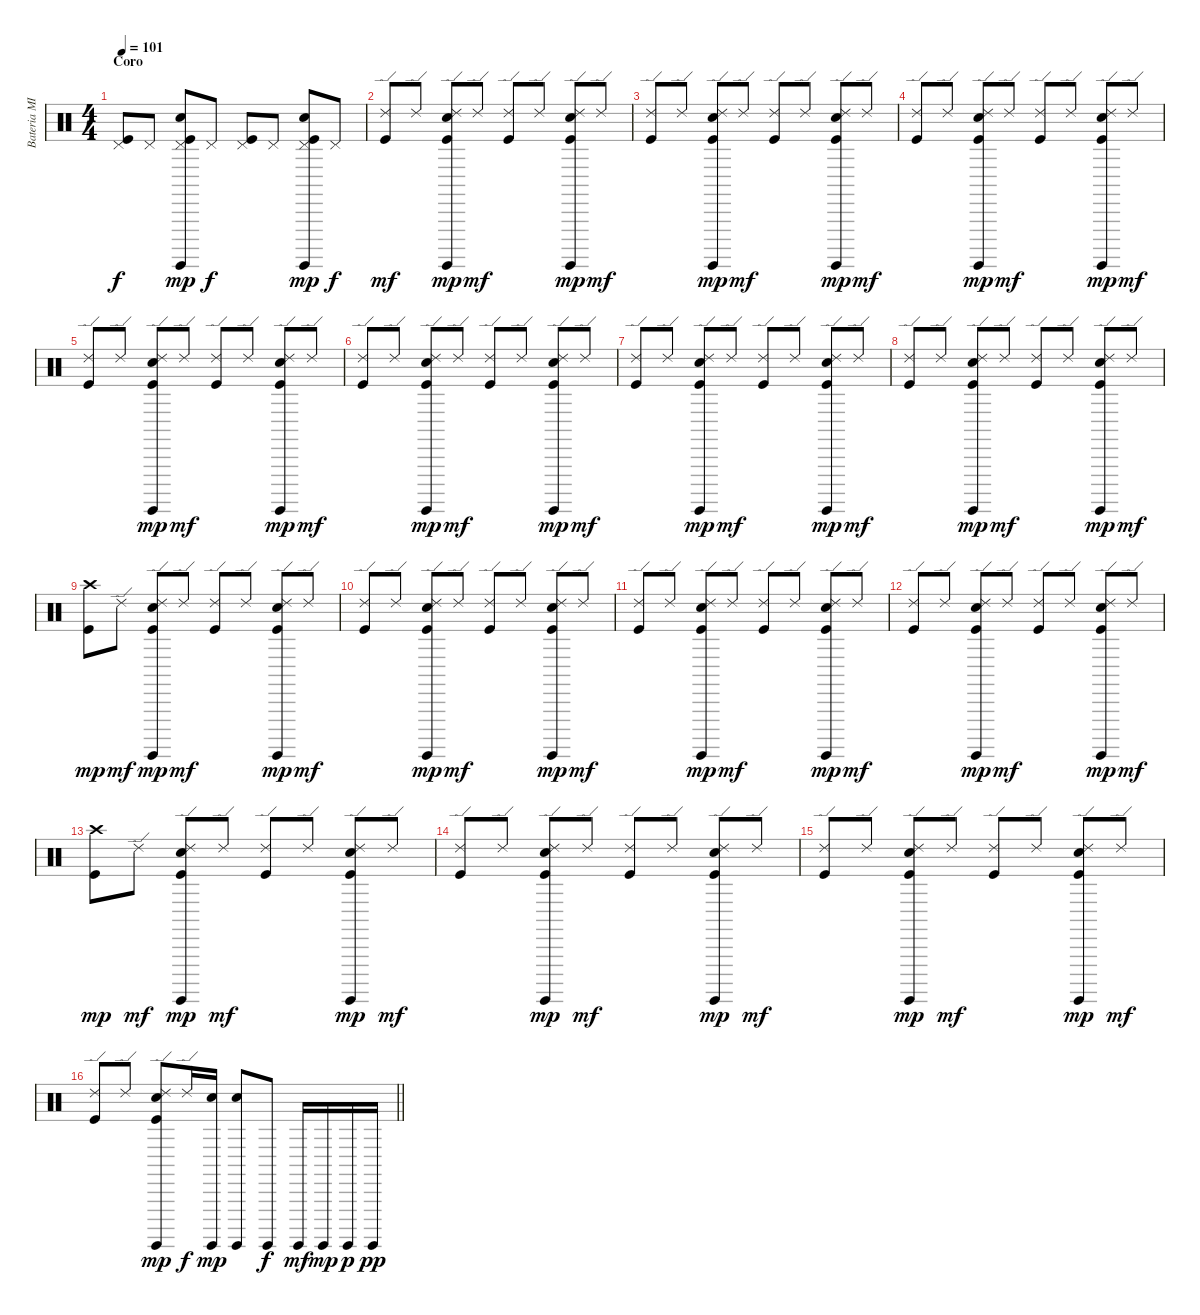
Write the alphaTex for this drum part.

\track ("Bateria MIDI" "Bateria MI") {instrument percussion}
\staff {score}
\articulation defaults
\ts (4 4)
\section ("" "Coro")
\tempo 101
\clef neutral
\ks c
("Pedal Hi-Hat (hit)" "Kick (hit)").8{dy f} "Pedal Hi-Hat (hit)".8 ("Pedal Hi-Hat (hit)" "Surdo (hit)" "Electric Snare (hit)" "Kick (hit)").8{dy mp} "Pedal Hi-Hat (hit)".8{dy f} ("Pedal Hi-Hat (hit)" "Kick (hit)").8 "Pedal Hi-Hat (hit)".8 ("Pedal Hi-Hat (hit)" "Surdo (hit)" "Electric Snare (hit)" "Kick (hit)").8{dy mp} "Pedal Hi-Hat (hit)".8{dy f} |
("Ride (edge) 2" "Kick (hit)").8{dy mf} "Ride (edge) 2".8 ("Ride (edge) 2" "Surdo (hit)" "Electric Snare (hit)" "Kick (hit)").8{dy mp} "Ride (edge) 2".8{dy mf} ("Ride (edge) 2" "Kick (hit)").8 "Ride (edge) 2".8 ("Ride (edge) 2" "Surdo (hit)" "Electric Snare (hit)" "Kick (hit)").8{dy mp} "Ride (edge) 2".8{dy mf} |
("Ride (edge) 2" "Kick (hit)").8 "Ride (edge) 2".8 ("Ride (edge) 2" "Surdo (hit)" "Electric Snare (hit)" "Kick (hit)").8{dy mp} "Ride (edge) 2".8{dy mf} ("Ride (edge) 2" "Kick (hit)").8 "Ride (edge) 2".8 ("Ride (edge) 2" "Surdo (hit)" "Electric Snare (hit)" "Kick (hit)").8{dy mp} "Ride (edge) 2".8{dy mf} |
("Ride (edge) 2" "Kick (hit)").8 "Ride (edge) 2".8 ("Ride (edge) 2" "Surdo (hit)" "Electric Snare (hit)" "Kick (hit)").8{dy mp} "Ride (edge) 2".8{dy mf} ("Ride (edge) 2" "Kick (hit)").8 "Ride (edge) 2".8 ("Ride (edge) 2" "Surdo (hit)" "Electric Snare (hit)" "Kick (hit)").8{dy mp} "Ride (edge) 2".8{dy mf} |
("Ride (edge) 2" "Kick (hit)").8 "Ride (edge) 2".8 ("Ride (edge) 2" "Surdo (hit)" "Electric Snare (hit)" "Kick (hit)").8{dy mp} "Ride (edge) 2".8{dy mf} ("Ride (edge) 2" "Kick (hit)").8 "Ride (edge) 2".8 ("Ride (edge) 2" "Surdo (hit)" "Electric Snare (hit)" "Kick (hit)").8{dy mp} "Ride (edge) 2".8{dy mf} |
("Ride (edge) 2" "Kick (hit)").8 "Ride (edge) 2".8 ("Ride (edge) 2" "Surdo (hit)" "Electric Snare (hit)" "Kick (hit)").8{dy mp} "Ride (edge) 2".8{dy mf} ("Ride (edge) 2" "Kick (hit)").8 "Ride (edge) 2".8 ("Ride (edge) 2" "Surdo (hit)" "Electric Snare (hit)" "Kick (hit)").8{dy mp} "Ride (edge) 2".8{dy mf} |
("Ride (edge) 2" "Kick (hit)").8 "Ride (edge) 2".8 ("Ride (edge) 2" "Surdo (hit)" "Electric Snare (hit)" "Kick (hit)").8{dy mp} "Ride (edge) 2".8{dy mf} ("Ride (edge) 2" "Kick (hit)").8 "Ride (edge) 2".8 ("Ride (edge) 2" "Surdo (hit)" "Electric Snare (hit)" "Kick (hit)").8{dy mp} "Ride (edge) 2".8{dy mf} |
("Ride (edge) 2" "Kick (hit)").8 "Ride (edge) 2".8 ("Ride (edge) 2" "Surdo (hit)" "Electric Snare (hit)" "Kick (hit)").8{dy mp} "Ride (edge) 2".8{dy mf} ("Ride (edge) 2" "Kick (hit)").8 "Ride (edge) 2".8 ("Ride (edge) 2" "Surdo (hit)" "Electric Snare (hit)" "Kick (hit)").8{dy mp} "Ride (edge) 2".8{dy mf} |
("Crash high (hit)" "Kick (hit)").8{dy mp} "Ride (edge) 2".8{dy mf} ("Ride (edge) 2" "Surdo (hit)" "Electric Snare (hit)" "Kick (hit)").8{dy mp} "Ride (edge) 2".8{dy mf} ("Ride (edge) 2" "Kick (hit)").8 "Ride (edge) 2".8 ("Ride (edge) 2" "Surdo (hit)" "Electric Snare (hit)" "Kick (hit)").8{dy mp} "Ride (edge) 2".8{dy mf} |
("Ride (edge) 2" "Kick (hit)").8 "Ride (edge) 2".8 ("Ride (edge) 2" "Surdo (hit)" "Electric Snare (hit)" "Kick (hit)").8{dy mp} "Ride (edge) 2".8{dy mf} ("Ride (edge) 2" "Kick (hit)").8 "Ride (edge) 2".8 ("Ride (edge) 2" "Surdo (hit)" "Electric Snare (hit)" "Kick (hit)").8{dy mp} "Ride (edge) 2".8{dy mf} |
("Ride (edge) 2" "Kick (hit)").8 "Ride (edge) 2".8 ("Ride (edge) 2" "Surdo (hit)" "Electric Snare (hit)" "Kick (hit)").8{dy mp} "Ride (edge) 2".8{dy mf} ("Ride (edge) 2" "Kick (hit)").8 "Ride (edge) 2".8 ("Ride (edge) 2" "Surdo (hit)" "Electric Snare (hit)" "Kick (hit)").8{dy mp} "Ride (edge) 2".8{dy mf} |
("Ride (edge) 2" "Kick (hit)").8 "Ride (edge) 2".8 ("Ride (edge) 2" "Surdo (hit)" "Electric Snare (hit)" "Kick (hit)").8{dy mp} "Ride (edge) 2".8{dy mf} ("Ride (edge) 2" "Kick (hit)").8 "Ride (edge) 2".8 ("Ride (edge) 2" "Surdo (hit)" "Electric Snare (hit)" "Kick (hit)").8{dy mp} "Ride (edge) 2".8{dy mf} |
("Crash high (hit)" "Kick (hit)").8{dy mp} "Ride (edge) 2".8{dy mf} ("Ride (edge) 2" "Surdo (hit)" "Electric Snare (hit)" "Kick (hit)").8{dy mp} "Ride (edge) 2".8{dy mf} ("Ride (edge) 2" "Kick (hit)").8 "Ride (edge) 2".8 ("Ride (edge) 2" "Surdo (hit)" "Electric Snare (hit)" "Kick (hit)").8{dy mp} "Ride (edge) 2".8{dy mf} |
("Ride (edge) 2" "Kick (hit)").8 "Ride (edge) 2".8 ("Ride (edge) 2" "Surdo (hit)" "Electric Snare (hit)" "Kick (hit)").8{dy mp} "Ride (edge) 2".8{dy mf} ("Ride (edge) 2" "Kick (hit)").8 "Ride (edge) 2".8 ("Ride (edge) 2" "Surdo (hit)" "Electric Snare (hit)" "Kick (hit)").8{dy mp} "Ride (edge) 2".8{dy mf} |
("Ride (edge) 2" "Kick (hit)").8 "Ride (edge) 2".8 ("Ride (edge) 2" "Surdo (hit)" "Electric Snare (hit)" "Kick (hit)").8{dy mp} "Ride (edge) 2".8{dy mf} ("Ride (edge) 2" "Kick (hit)").8 "Ride (edge) 2".8 ("Ride (edge) 2" "Surdo (hit)" "Electric Snare (hit)" "Kick (hit)").8{dy mp} "Ride (edge) 2".8{dy mf} |
\barLineRight lightlight
("Ride (edge) 2" "Kick (hit)").8 "Ride (edge) 2".8 ("Ride (edge) 2" "Surdo (hit)" "Electric Snare (hit)" "Kick (hit)").8{dy mp} "Ride (edge) 2".16{dy f} ("Surdo (hit)" "Electric Snare (hit)").16{dy mp} ("Surdo (hit)" "Electric Snare (hit)").8 "Surdo (hit)".8{dy f} "Surdo (hit)".16{dy mf} "Surdo (hit)".16{dy mp} "Surdo (hit)".16{dy p} "Surdo (hit)".16{dy pp}
